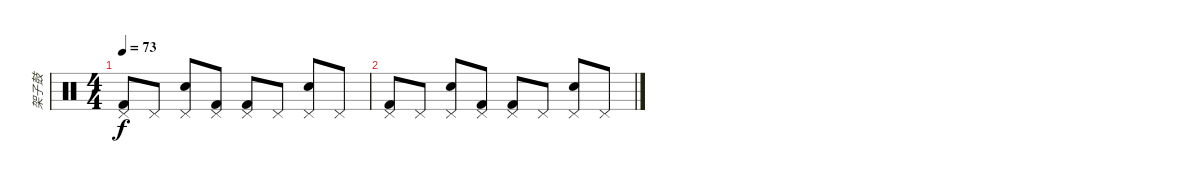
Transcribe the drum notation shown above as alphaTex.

\track ("架子鼓" "架子鼓") {instrument percussion}
\staff {score}
\articulation defaults
\ts (4 4)
\tempo 73
\clef neutral
\ks c
("Pedal Hi-Hat (hit)" "Kick (hit) 2").8{dy f} "Pedal Hi-Hat (hit)".8 ("Pedal Hi-Hat (hit)" "Electric Snare (hit)").8 ("Pedal Hi-Hat (hit)" "Kick (hit) 2").8 ("Pedal Hi-Hat (hit)" "Kick (hit) 2").8 "Pedal Hi-Hat (hit)".8 ("Pedal Hi-Hat (hit)" "Electric Snare (hit)").8 "Pedal Hi-Hat (hit)".8 |
("Pedal Hi-Hat (hit)" "Kick (hit) 2").8 "Pedal Hi-Hat (hit)".8 ("Pedal Hi-Hat (hit)" "Electric Snare (hit)").8 ("Pedal Hi-Hat (hit)" "Kick (hit) 2").8 ("Pedal Hi-Hat (hit)" "Kick (hit) 2").8 "Pedal Hi-Hat (hit)".8 ("Pedal Hi-Hat (hit)" "Electric Snare (hit)").8 "Pedal Hi-Hat (hit)".8
